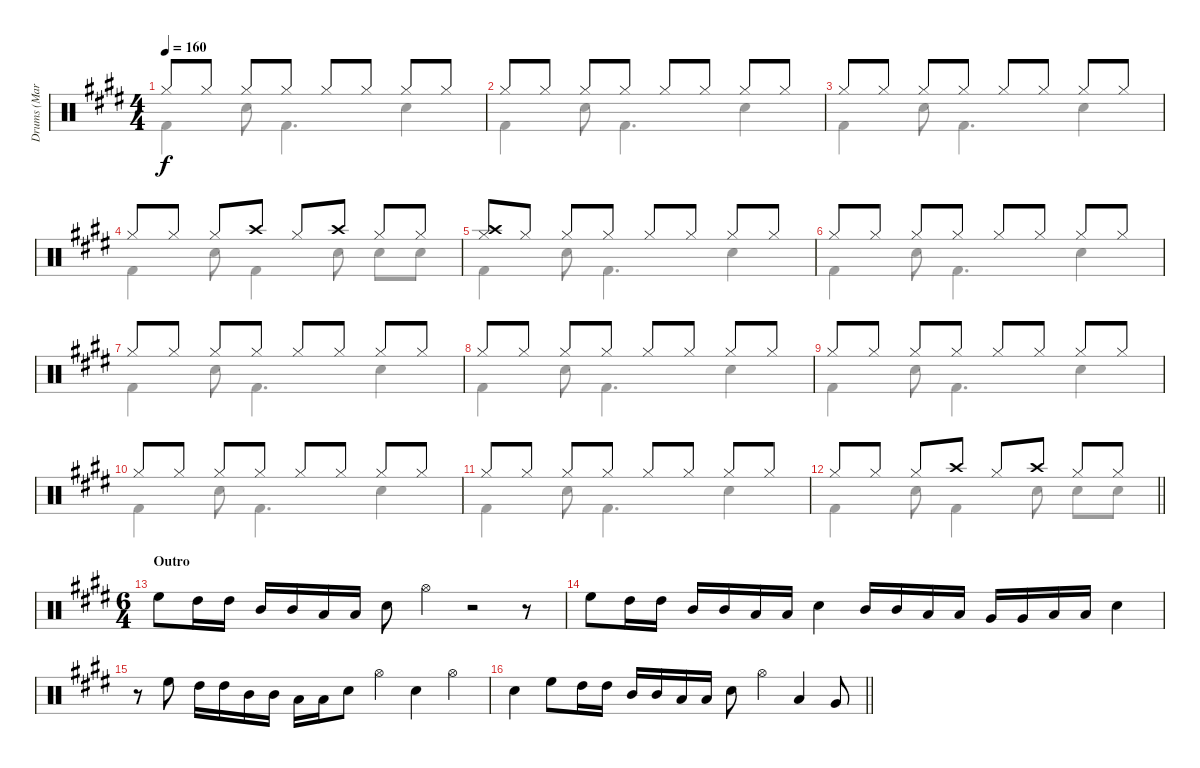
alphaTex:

\track ("Drums (Mark Zonder)" "Drums (Mar") {instrument percussion}
\staff {score}
\articulation defaults
\voice
\ts (4 4)
\tempo 160
\clef neutral
\ks c#minor "Hi-Hat (closed)".8{dy f} "Hi-Hat (closed)".8 "Hi-Hat (closed)".8 "Hi-Hat (closed)".8 "Hi-Hat (closed)".8 "Hi-Hat (closed)".8 "Hi-Hat (closed)".8 "Hi-Hat (closed)".8
|
"Hi-Hat (closed)".8 "Hi-Hat (closed)".8 "Hi-Hat (closed)".8 "Hi-Hat (closed)".8 "Hi-Hat (closed)".8 "Hi-Hat (closed)".8 "Hi-Hat (closed)".8 "Hi-Hat (closed)".8 |
"Hi-Hat (closed)".8 "Hi-Hat (closed)".8 "Hi-Hat (closed)".8 "Hi-Hat (closed)".8 "Hi-Hat (closed)".8 "Hi-Hat (closed)".8 "Hi-Hat (closed)".8 "Hi-Hat (closed)".8 |
"Hi-Hat (closed)".8 "Hi-Hat (closed)".8 "Hi-Hat (closed)".8 "Crash high (hit)".8 "Hi-Hat (closed)".8 "Crash high (hit)".8 "Hi-Hat (closed)".8 "Hi-Hat (closed)".8 |
("Hi-Hat (closed)" "Crash high (hit)").8 "Hi-Hat (closed)".8 "Hi-Hat (closed)".8 "Hi-Hat (closed)".8 "Hi-Hat (closed)".8 "Hi-Hat (closed)".8 "Hi-Hat (closed)".8 "Hi-Hat (closed)".8 |
"Hi-Hat (closed)".8 "Hi-Hat (closed)".8 "Hi-Hat (closed)".8 "Hi-Hat (closed)".8 "Hi-Hat (closed)".8 "Hi-Hat (closed)".8 "Hi-Hat (closed)".8 "Hi-Hat (closed)".8 |
"Hi-Hat (closed)".8 "Hi-Hat (closed)".8 "Hi-Hat (closed)".8 "Hi-Hat (closed)".8 "Hi-Hat (closed)".8 "Hi-Hat (closed)".8 "Hi-Hat (closed)".8 "Hi-Hat (closed)".8 |
"Hi-Hat (closed)".8 "Hi-Hat (closed)".8 "Hi-Hat (closed)".8 "Hi-Hat (closed)".8 "Hi-Hat (closed)".8 "Hi-Hat (closed)".8 "Hi-Hat (closed)".8 "Hi-Hat (closed)".8 |
"Hi-Hat (closed)".8 "Hi-Hat (closed)".8 "Hi-Hat (closed)".8 "Hi-Hat (closed)".8 "Hi-Hat (closed)".8 "Hi-Hat (closed)".8 "Hi-Hat (closed)".8 "Hi-Hat (closed)".8 |
"Hi-Hat (closed)".8 "Hi-Hat (closed)".8 "Hi-Hat (closed)".8 "Hi-Hat (closed)".8 "Hi-Hat (closed)".8 "Hi-Hat (closed)".8 "Hi-Hat (closed)".8 "Hi-Hat (closed)".8 |
"Hi-Hat (closed)".8 "Hi-Hat (closed)".8 "Hi-Hat (closed)".8 "Hi-Hat (closed)".8 "Hi-Hat (closed)".8 "Hi-Hat (closed)".8 "Hi-Hat (closed)".8 "Hi-Hat (closed)".8 |
\barLineRight lightlight "Hi-Hat (closed)".8 "Hi-Hat (closed)".8 "Hi-Hat (closed)".8 "Crash high (hit)".8 "Hi-Hat (closed)".8 "Crash high (hit)".8 "Hi-Hat (closed)".8 "Hi-Hat (closed)".8
|
\ts (6 4)
\section ("" "Outro")
"High Floor Tom (hit)".8 "High Tom (hit)".16 "High Tom (hit)".16 "Mid Tom (hit)".16 "Mid Tom (hit)".16 "Low Tom (hit)".16 "Low Tom (hit)".16 "Electric Snare (hit)".8 "Hi-Hat (open)".4 r.2 r.8 |
"High Floor Tom (hit)".8 "High Tom (hit)".16 "High Tom (hit)".16 "Mid Tom (hit)".16 "Mid Tom (hit)".16 "Low Tom (hit)".16 "Low Tom (hit)".16 "Electric Snare (hit)".4 "Mid Tom (hit)".16 "Mid Tom (hit)".16 "Low Tom (hit)".16 "Low Tom (hit)".16 "Very Low Tom (hit)".16 "Very Low Tom (hit)".16 "Low Floor Tom (hit)".16 "Low Floor Tom (hit)".16 "Electric Snare (hit)".4 |
r.8 "High Floor Tom (hit)".8 "High Tom (hit)".16 "High Tom (hit)".16 "Mid Tom (hit)".16 "Mid Tom (hit)".16 "Low Tom (hit)".16 "Low Tom (hit)".16 "Electric Snare (hit)".8 "Hi-Hat (open)".4 "Electric Snare (hit)".4 "Hi-Hat (open)".4 |
\barLineRight lightlight "Electric Snare (hit)".4 "High Floor Tom (hit)".8 "High Tom (hit)".16 "High Tom (hit)".16 "Mid Tom (hit)".16 "Mid Tom (hit)".16 "Low Tom (hit)".16 "Low Tom (hit)".16 "Electric Snare (hit)".8 "Hi-Hat (open)".4 "Low Tom (hit)".4 "Very Low Tom (hit)".8
\voice
\clef neutral
\ottava regular
\simile none
\ks c#minor "Kick (hit) 2".4{dy f} "Electric Snare (hit)".8 "Kick (hit) 2".4{d} "Electric Snare (hit)".4
|
"Kick (hit) 2".4 "Electric Snare (hit)".8 "Kick (hit) 2".4{d} "Electric Snare (hit)".4 |
"Kick (hit) 2".4 "Electric Snare (hit)".8 "Kick (hit) 2".4{d} "Electric Snare (hit)".4 |
"Kick (hit) 2".4 "Electric Snare (hit)".8 "Kick (hit) 2".4 "Electric Snare (hit)".8 "Electric Snare (hit)".8 "Electric Snare (hit)".8 |
"Kick (hit) 2".4 "Electric Snare (hit)".8 "Kick (hit) 2".4{d} "Electric Snare (hit)".4 |
"Kick (hit) 2".4 "Electric Snare (hit)".8 "Kick (hit) 2".4{d} "Electric Snare (hit)".4 |
"Kick (hit) 2".4 "Electric Snare (hit)".8 "Kick (hit) 2".4{d} "Electric Snare (hit)".4 |
"Kick (hit) 2".4 "Electric Snare (hit)".8 "Kick (hit) 2".4{d} "Electric Snare (hit)".4 |
"Kick (hit) 2".4 "Electric Snare (hit)".8 "Kick (hit) 2".4{d} "Electric Snare (hit)".4 |
"Kick (hit) 2".4 "Electric Snare (hit)".8 "Kick (hit) 2".4{d} "Electric Snare (hit)".4 |
"Kick (hit) 2".4 "Electric Snare (hit)".8 "Kick (hit) 2".4{d} "Electric Snare (hit)".4 |
\barLineRight lightlight "Kick (hit) 2".4 "Electric Snare (hit)".8 "Kick (hit) 2".4 "Electric Snare (hit)".8 "Electric Snare (hit)".8 "Electric Snare (hit)".8
|
|
|
|
\barLineRight lightlight
